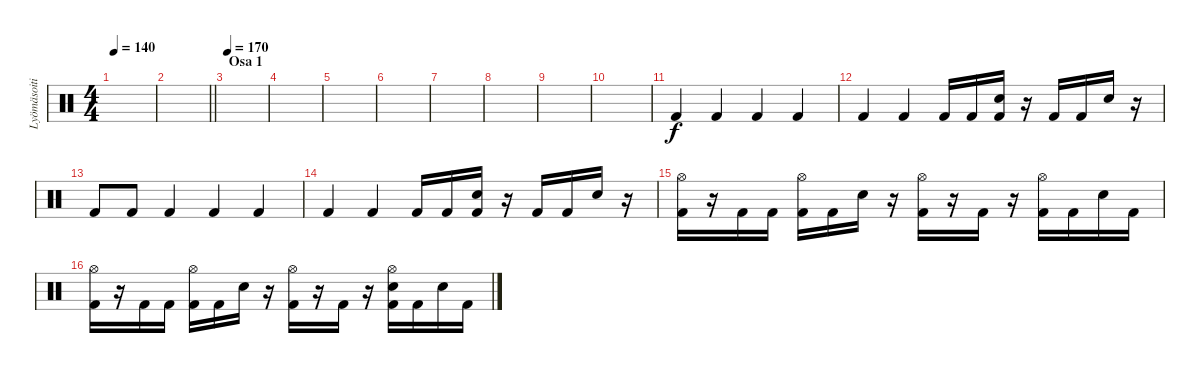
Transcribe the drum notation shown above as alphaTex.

\track ("Lyömäsoitin" "Lyömäsoiti") {instrument percussion}
\staff {score}
\articulation defaults
\ts (4 4)
\tempo 140
\clef neutral
\ks c
|
\barLineRight lightlight
|
\section ("" "Osa 1")
\tempo 170
|
|
|
|
|
|
|
|
"Kick (hit) 2".4 "Kick (hit) 2".4 "Kick (hit) 2".4 "Kick (hit) 2".4 |
"Kick (hit) 2".4 "Kick (hit) 2".4 "Kick (hit) 2".16 "Kick (hit) 2".16 ("Electric Snare (hit)" "Kick (hit) 2").16 r.16 "Kick (hit) 2".16 "Kick (hit) 2".16 "Electric Snare (hit)".16 r.16 |
"Kick (hit) 2".8 "Kick (hit) 2".8 "Kick (hit) 2".4 "Kick (hit) 2".4 "Kick (hit) 2".4 |
"Kick (hit) 2".4 "Kick (hit) 2".4 "Kick (hit) 2".16 "Kick (hit) 2".16 ("Electric Snare (hit)" "Kick (hit) 2").16 r.16 "Kick (hit) 2".16 "Kick (hit) 2".16 "Electric Snare (hit)".16 r.16 |
("Hi-Hat (open)" "Kick (hit) 2").16 r.16 "Kick (hit) 2".16 "Kick (hit) 2".16 ("Hi-Hat (open)" "Kick (hit) 2").16 "Kick (hit) 2".16 "Electric Snare (hit)".16 r.16 ("Hi-Hat (open)" "Kick (hit) 2").16 r.16 "Kick (hit) 2".16 r.16 ("Hi-Hat (open)" "Kick (hit) 2").16 "Kick (hit) 2".16 "Electric Snare (hit)".16 "Kick (hit) 2".16 |
("Hi-Hat (open)" "Kick (hit) 2").16 r.16 "Kick (hit) 2".16 "Kick (hit) 2".16 ("Hi-Hat (open)" "Kick (hit) 2").16 "Kick (hit) 2".16 "Electric Snare (hit)".16 r.16 ("Hi-Hat (open)" "Kick (hit) 2").16 r.16 "Kick (hit) 2".16 r.16 ("Hi-Hat (open)" "Electric Snare (hit)" "Kick (hit) 2").16 "Kick (hit) 2".16 "Electric Snare (hit)".16 "Kick (hit) 2".16
